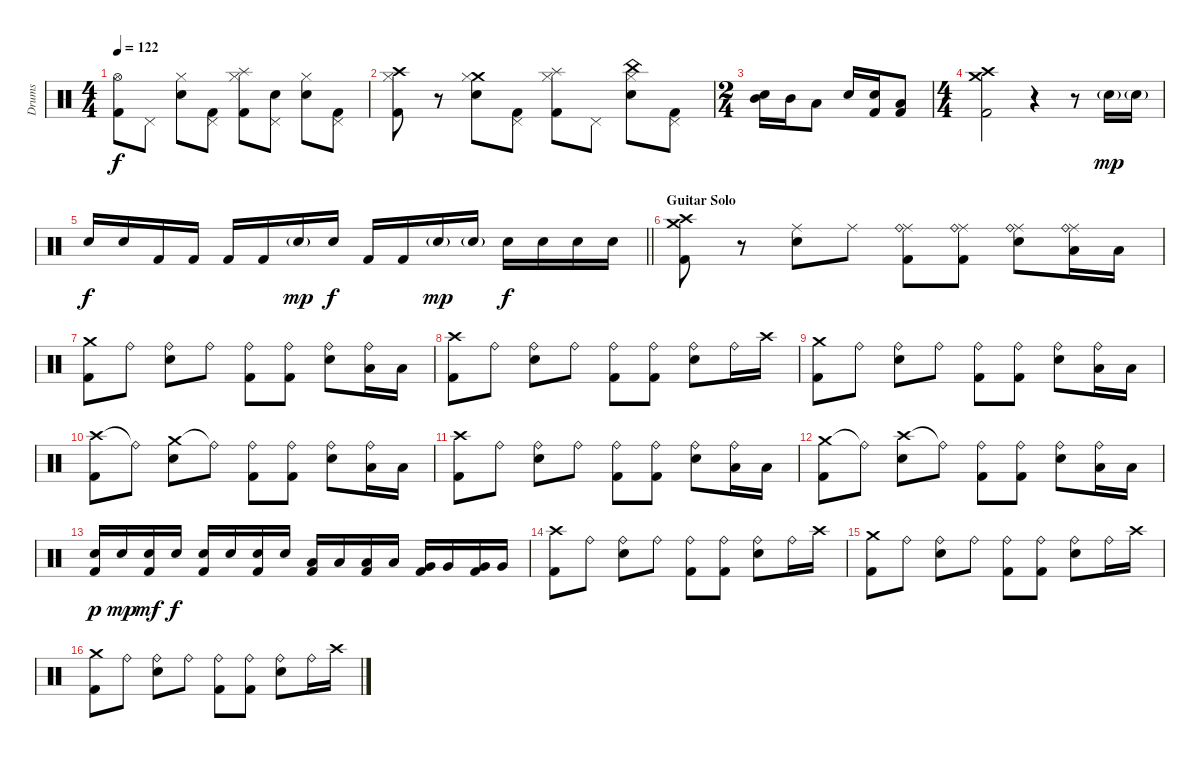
\track ("Drums" "Drums") {instrument percussion}
\staff {score}
\articulation defaults
\ts (4 4)
\tempo 122
\clef neutral
\ks c
("Hi-Hat (open)" "Kick (hit) 2").8{dy f} "Pedal Hi-Hat (hit)".8 ("Snare (hit) 2" "Hi-Hat (closed)").8 ("Pedal Hi-Hat (hit)" "Kick (hit) 2").8 ("Splash (hit)" "Hi-Hat (closed)" "Kick (hit) 2").8 ("Snare (hit) 2" "Pedal Hi-Hat (hit)").8 ("Snare (hit) 2" "Hi-Hat (closed)").8 ("Pedal Hi-Hat (hit)" "Kick (hit) 2").8 |
("Crash high (hit)" "Hi-Hat (closed)" "Kick (hit) 2").8 r.8 ("Crash medium (hit)" "Snare (hit) 2" "Hi-Hat (closed)").8 ("Pedal Hi-Hat (hit)" "Kick (hit) 2").8 ("Splash (hit)" "Hi-Hat (closed)" "Kick (hit) 2").8 "Pedal Hi-Hat (hit)".8 ("China (hit)" "Snare (hit) 2" "Hi-Hat (closed)").8 ("Pedal Hi-Hat (hit)" "Kick (hit) 2").8 |
\ts (2 4)
("Snare (hit) 2" "Mid Tom (hit)").16 "Mid Tom (hit)".16 "Low Tom (hit)".8 "Snare (hit) 2".16 ("Snare (hit) 2" "Kick (hit) 2").16 ("Low Floor Tom (hit)" "Kick (hit) 2").8 |
\ts (4 4)
("Crash medium (hit)" "Crash high (hit)" "Kick (hit) 2").2 r.4 r.8 "Snare (hit) 2"{g}.16{dy mp} "Snare (hit) 2"{g}.16 |
\barLineRight lightlight "Snare (hit) 2".16{dy f} "Snare (hit) 2".16 "Kick (hit) 2".16 "Kick (hit) 2".16 "Kick (hit) 2".16 "Kick (hit) 2".16 "Snare (hit) 2"{g}.16{dy mp} "Snare (hit) 2".16{dy f} "Kick (hit) 2".16 "Kick (hit) 2".16 "Snare (hit) 2"{g}.16{dy mp} "Snare (hit) 2"{g}.16 "Snare (hit) 2".16{dy f} "Snare (hit) 2".16 "Snare (hit) 2".16 "Snare (hit) 2".16
|
\section ("" "Guitar Solo")
("Crash medium (hit)" "Crash high (hit)" "Kick (hit) 2").8 r.8 ("Ride (middle)" "Snare (hit) 2").8 "Ride (middle)".8 ("Ride (middle)" "Ride (bell)" "Kick (hit) 2").8 ("Ride (middle)" "Ride (bell)" "Kick (hit) 2").8 ("Ride (middle)" "Ride (bell)" "Snare (hit) 2").8 ("Ride (middle)" "Ride (bell)" "Low Tom (hit)").16 "Low Tom (hit)".16 |
("Crash medium (hit)" "Kick (hit) 2").8 "Ride (bell)".8 ("Ride (bell)" "Snare (hit) 2").8 "Ride (bell)".8 ("Ride (bell)" "Kick (hit) 2").8 ("Ride (bell)" "Kick (hit) 2").8 ("Ride (bell)" "Snare (hit) 2").8 ("Ride (bell)" "Low Tom (hit)").16 "Low Tom (hit)".16 |
("Crash high (hit)" "Kick (hit) 2").8 "Ride (bell)".8 ("Ride (bell)" "Snare (hit) 2").8 "Ride (bell)".8 ("Ride (bell)" "Kick (hit) 2").8 ("Ride (bell)" "Kick (hit) 2").8 ("Ride (bell)" "Snare (hit) 2").8 "Ride (bell)".16 "Crash high (hit)".16 |
("Crash medium (hit)" "Kick (hit) 2").8 "Ride (bell)".8 ("Ride (bell)" "Snare (hit) 2").8 "Ride (bell)".8 ("Ride (bell)" "Kick (hit) 2").8 ("Ride (bell)" "Kick (hit) 2").8 ("Ride (bell)" "Snare (hit) 2").8 ("Ride (bell)" "Low Tom (hit)").16 "Low Tom (hit)".16 |
("Crash high (hit)" "Kick (hit) 2").8 "Ride (bell)"{t}.8 ("Crash medium (hit)" "Snare (hit) 2").8 "Ride (bell)"{t}.8 ("Ride (bell)" "Kick (hit) 2").8 ("Ride (bell)" "Kick (hit) 2").8 ("Ride (bell)" "Snare (hit) 2").8 ("Ride (bell)" "Low Tom (hit)").16 "Low Tom (hit)".16 |
("Crash high (hit)" "Kick (hit) 2").8 "Ride (bell)".8 ("Ride (bell)" "Snare (hit) 2").8 "Ride (bell)".8 ("Ride (bell)" "Kick (hit) 2").8 ("Ride (bell)" "Kick (hit) 2").8 ("Ride (bell)" "Snare (hit) 2").8 ("Ride (bell)" "Low Tom (hit)").16 "Low Tom (hit)".16 |
("Crash medium (hit)" "Kick (hit) 2").8 "Ride (bell)"{t}.8 ("Crash high (hit)" "Snare (hit) 2").8 "Ride (bell)"{t}.8 ("Ride (bell)" "Kick (hit) 2").8 ("Ride (bell)" "Kick (hit) 2").8 ("Ride (bell)" "Snare (hit) 2").8 ("Ride (bell)" "Low Tom (hit)").16 "Low Tom (hit)".16 |
("Snare (hit) 2" "Kick (hit) 2").16{dy p} "Snare (hit) 2".16{dy mp} ("Snare (hit) 2" "Kick (hit) 2").16{dy mf} "Snare (hit) 2".16{dy f} ("Snare (hit) 2" "Kick (hit) 2").16 "Snare (hit) 2".16 ("Snare (hit) 2" "Kick (hit) 2").16 "Snare (hit) 2".16 ("Low Tom (hit)" "Kick (hit) 2").16 "Low Tom (hit)".16 ("Low Tom (hit)" "Kick (hit) 2").16 "Low Tom (hit)".16 ("Very Low Tom (hit)" "Kick (hit) 2").16 "Very Low Tom (hit)".16 ("Very Low Tom (hit)" "Kick (hit) 2").16 "Very Low Tom (hit)".16 |
("Crash high (hit)" "Kick (hit) 2").8 "Ride (bell)".8 ("Ride (bell)" "Snare (hit) 2").8 "Ride (bell)".8 ("Ride (bell)" "Kick (hit) 2").8 ("Ride (bell)" "Kick (hit) 2").8 ("Ride (bell)" "Snare (hit) 2").8 "Ride (bell)".16 "Crash high (hit)".16 |
("Crash medium (hit)" "Kick (hit) 2").8 "Ride (bell)".8 ("Ride (bell)" "Snare (hit) 2").8 "Ride (bell)".8 ("Ride (bell)" "Kick (hit) 2").8 ("Ride (bell)" "Kick (hit) 2").8 ("Ride (bell)" "Snare (hit) 2").8 "Ride (bell)".16 "Crash high (hit)".16 |
("Crash medium (hit)" "Kick (hit) 2").8 "Ride (bell)".8 ("Ride (bell)" "Snare (hit) 2").8 "Ride (bell)".8 ("Ride (bell)" "Kick (hit) 2").8 ("Ride (bell)" "Kick (hit) 2").8 ("Ride (bell)" "Snare (hit) 2").8 "Ride (bell)".16 "Crash high (hit)".16
